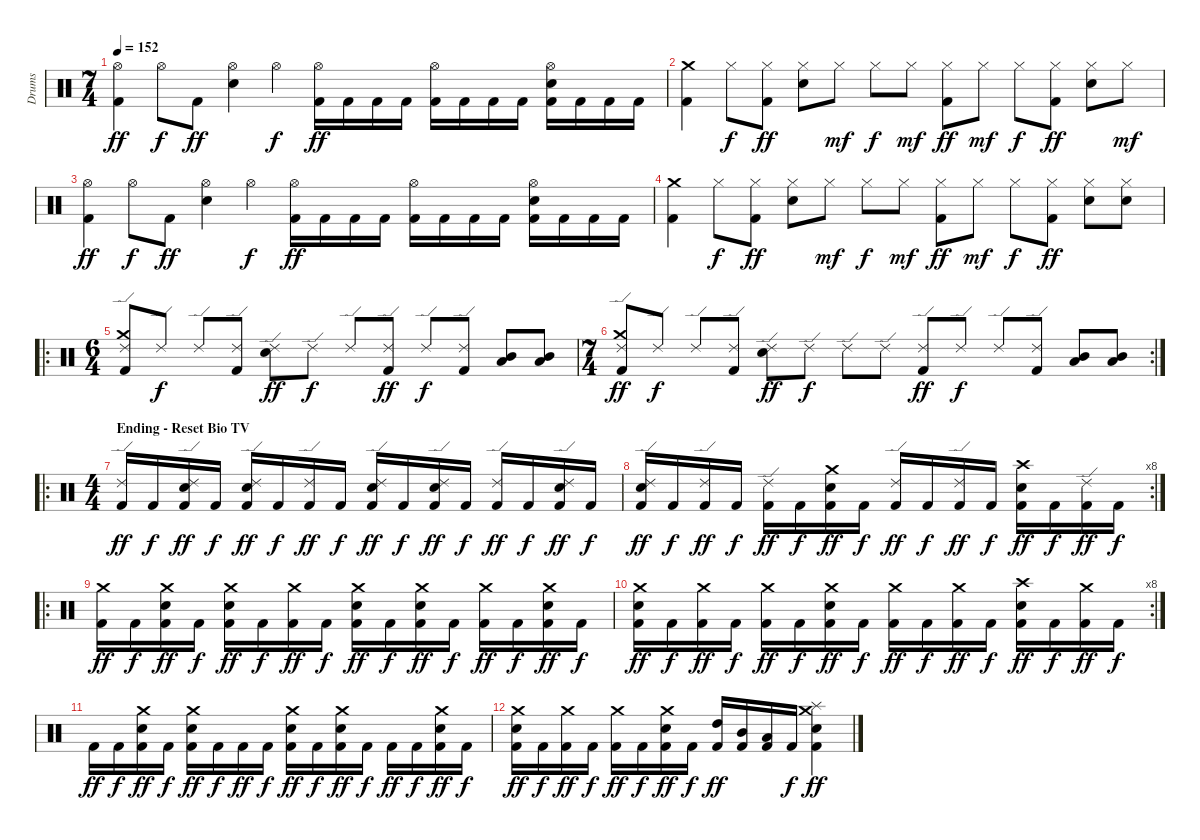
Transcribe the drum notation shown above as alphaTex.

\track ("Drums" "Drums") {instrument percussion}
\staff {score}
\articulation defaults
\ts (7 4)
\tempo 152
\clef neutral
\ks c
("Hi-Hat (open)" "Kick (hit) 2").4{dy ff} "Hi-Hat (open)".8{dy f} "Kick (hit) 2".8{dy ff} ("Hi-Hat (open)" "Electric Snare (hit)").4 "Hi-Hat (open)".4{dy f} ("Hi-Hat (open)" "Kick (hit) 2").16{dy ff} "Kick (hit) 2".16 "Kick (hit) 2".16 "Kick (hit) 2".16 ("Hi-Hat (open)" "Kick (hit) 2").16 "Kick (hit) 2".16 "Kick (hit) 2".16 "Kick (hit) 2".16 ("Hi-Hat (open)" "Electric Snare (hit)" "Kick (hit) 2").16 "Kick (hit) 2".16 "Kick (hit) 2".16 "Kick (hit) 2".16 |
("Crash medium (hit)" "Kick (hit) 2").4 "Hi-Hat (closed)".8{dy f} ("Hi-Hat (closed)" "Kick (hit) 2").8{dy ff} ("Hi-Hat (closed)" "Electric Snare (hit)").8 "Hi-Hat (closed)".8{dy mf} "Hi-Hat (closed)".8{dy f} "Hi-Hat (closed)".8{dy mf} ("Hi-Hat (closed)" "Kick (hit) 2").8{dy ff} "Hi-Hat (closed)".8{dy mf} "Hi-Hat (closed)".8{dy f} ("Hi-Hat (closed)" "Kick (hit) 2").8{dy ff} ("Hi-Hat (closed)" "Electric Snare (hit)").8 "Hi-Hat (closed)".8{dy mf} |
("Hi-Hat (open)" "Kick (hit) 2").4{dy ff} "Hi-Hat (open)".8{dy f} "Kick (hit) 2".8{dy ff} ("Hi-Hat (open)" "Electric Snare (hit)").4 "Hi-Hat (open)".4{dy f} ("Hi-Hat (open)" "Kick (hit) 2").16{dy ff} "Kick (hit) 2".16 "Kick (hit) 2".16 "Kick (hit) 2".16 ("Hi-Hat (open)" "Kick (hit) 2").16 "Kick (hit) 2".16 "Kick (hit) 2".16 "Kick (hit) 2".16 ("Hi-Hat (open)" "Electric Snare (hit)" "Kick (hit) 2").16 "Kick (hit) 2".16 "Kick (hit) 2".16 "Kick (hit) 2".16 |
("Crash medium (hit)" "Kick (hit) 2").4 "Hi-Hat (closed)".8{dy f} ("Hi-Hat (closed)" "Kick (hit) 2").8{dy ff} ("Hi-Hat (closed)" "Electric Snare (hit)").8 "Hi-Hat (closed)".8{dy mf} "Hi-Hat (closed)".8{dy f} "Hi-Hat (closed)".8{dy mf} ("Hi-Hat (closed)" "Kick (hit) 2").8{dy ff} "Hi-Hat (closed)".8{dy mf} "Hi-Hat (closed)".8{dy f} ("Hi-Hat (closed)" "Kick (hit) 2").8{dy ff} ("Hi-Hat (closed)" "Electric Snare (hit)").8 ("Hi-Hat (closed)" "Electric Snare (hit)").8 |
\ro
\ts (6 4)
("Ride (edge) 2" "Crash medium (hit)" "Kick (hit) 2").8 "Ride (edge) 2".8{dy f} "Ride (edge) 2".8 ("Ride (edge) 2" "Kick (hit) 2").8 ("Ride (edge) 2" "Electric Snare (hit)").8{dy ff} "Ride (edge) 2".8{dy f} "Ride (edge) 2".8 ("Ride (edge) 2" "Kick (hit) 2").8{dy ff} "Ride (edge) 2".8{dy f} ("Ride (edge) 2" "Kick (hit) 2").8 ("Mid Tom (hit)" "Low Tom (hit)").8 ("Mid Tom (hit)" "Low Tom (hit)").8 |
\rc 2
\ts (7 4)
("Ride (edge) 2" "Crash medium (hit)" "Kick (hit) 2").8{dy ff} "Ride (edge) 2".8{dy f} "Ride (edge) 2".8 ("Ride (edge) 2" "Kick (hit) 2").8 ("Ride (edge) 2" "Electric Snare (hit)").8{dy ff} "Ride (edge) 2".8{dy f} "Ride (edge) 2".8 "Ride (edge) 2".8 ("Ride (edge) 2" "Kick (hit) 2").8{dy ff} "Ride (edge) 2".8{dy f} "Ride (edge) 2".8 ("Ride (edge) 2" "Kick (hit) 2").8 ("Mid Tom (hit)" "Low Tom (hit)").8 ("Mid Tom (hit)" "Low Tom (hit)").8 |
\ro
\ts (4 4)
\section ("" "Ending - Reset Bio TV")
("Ride (edge) 2" "Kick (hit) 2").16{dy ff} "Kick (hit) 2".16{dy f} ("Ride (edge) 2" "Electric Snare (hit)" "Kick (hit) 2").16{dy ff} "Kick (hit) 2".16{dy f} ("Ride (edge) 2" "Electric Snare (hit)" "Kick (hit) 2").16{dy ff} "Kick (hit) 2".16{dy f} ("Ride (edge) 2" "Kick (hit) 2").16{dy ff} "Kick (hit) 2".16{dy f} ("Ride (edge) 2" "Electric Snare (hit)" "Kick (hit) 2").16{dy ff} "Kick (hit) 2".16{dy f} ("Ride (edge) 2" "Electric Snare (hit)" "Kick (hit) 2").16{dy ff} "Kick (hit) 2".16{dy f} ("Ride (edge) 2" "Kick (hit) 2").16{dy ff} "Kick (hit) 2".16{dy f} ("Ride (edge) 2" "Electric Snare (hit)" "Kick (hit) 2").16{dy ff} "Kick (hit) 2".16{dy f} |
\rc 8
("Ride (edge) 2" "Electric Snare (hit)" "Kick (hit) 2").16{dy ff} "Kick (hit) 2".16{dy f} ("Ride (edge) 2" "Kick (hit) 2").16{dy ff} "Kick (hit) 2".16{dy f} ("Ride (edge) 2" "Kick (hit) 2").16{dy ff} "Kick (hit) 2".16{dy f} ("Crash medium (hit)" "Electric Snare (hit)" "Kick (hit) 2").16{dy ff} "Kick (hit) 2".16{dy f} ("Ride (edge) 2" "Kick (hit) 2").16{dy ff} "Kick (hit) 2".16{dy f} ("Ride (edge) 2" "Kick (hit) 2").16{dy ff} "Kick (hit) 2".16{dy f} ("Crash high (hit)" "Electric Snare (hit)" "Kick (hit) 2").16{dy ff} "Kick (hit) 2".16{dy f} ("Ride (edge) 2" "Kick (hit) 2").16{dy ff} "Kick (hit) 2".16{dy f} |
\ro
("Crash medium (hit)" "Kick (hit) 2").16{dy ff} "Kick (hit) 2".16{dy f} ("Crash medium (hit)" "Electric Snare (hit)" "Kick (hit) 2").16{dy ff} "Kick (hit) 2".16{dy f} ("Crash medium (hit)" "Electric Snare (hit)" "Kick (hit) 2").16{dy ff} "Kick (hit) 2".16{dy f} ("Crash medium (hit)" "Kick (hit) 2").16{dy ff} "Kick (hit) 2".16{dy f} ("Crash medium (hit)" "Electric Snare (hit)" "Kick (hit) 2").16{dy ff} "Kick (hit) 2".16{dy f} ("Crash medium (hit)" "Electric Snare (hit)" "Kick (hit) 2").16{dy ff} "Kick (hit) 2".16{dy f} ("Crash medium (hit)" "Kick (hit) 2").16{dy ff} "Kick (hit) 2".16{dy f} ("Crash medium (hit)" "Electric Snare (hit)" "Kick (hit) 2").16{dy ff} "Kick (hit) 2".16{dy f} |
\rc 8
("Crash medium (hit)" "Electric Snare (hit)" "Kick (hit) 2").16{dy ff} "Kick (hit) 2".16{dy f} ("Crash medium (hit)" "Kick (hit) 2").16{dy ff} "Kick (hit) 2".16{dy f} ("Crash medium (hit)" "Kick (hit) 2").16{dy ff} "Kick (hit) 2".16{dy f} ("Crash medium (hit)" "Electric Snare (hit)" "Kick (hit) 2").16{dy ff} "Kick (hit) 2".16{dy f} ("Crash medium (hit)" "Kick (hit) 2").16{dy ff} "Kick (hit) 2".16{dy f} ("Crash medium (hit)" "Kick (hit) 2").16{dy ff} "Kick (hit) 2".16{dy f} ("Crash high (hit)" "Electric Snare (hit)" "Kick (hit) 2").16{dy ff} "Kick (hit) 2".16{dy f} ("Crash medium (hit)" "Kick (hit) 2").16{dy ff} "Kick (hit) 2".16{dy f} |
"Kick (hit) 2".16{dy ff} "Kick (hit) 2".16{dy f} ("Crash medium (hit)" "Electric Snare (hit)" "Kick (hit) 2").16{dy ff} "Kick (hit) 2".16{dy f} ("Crash medium (hit)" "Electric Snare (hit)" "Kick (hit) 2").16{dy ff} "Kick (hit) 2".16{dy f} "Kick (hit) 2".16{dy ff} "Kick (hit) 2".16{dy f} ("Crash medium (hit)" "Electric Snare (hit)" "Kick (hit) 2").16{dy ff} "Kick (hit) 2".16{dy f} ("Crash medium (hit)" "Electric Snare (hit)" "Kick (hit) 2").16{dy ff} "Kick (hit) 2".16{dy f} "Kick (hit) 2".16{dy ff} "Kick (hit) 2".16{dy f} ("Crash medium (hit)" "Electric Snare (hit)" "Kick (hit) 2").16{dy ff} "Kick (hit) 2".16{dy f} |
("Crash medium (hit)" "Electric Snare (hit)" "Kick (hit) 2").16{dy ff} "Kick (hit) 2".16{dy f} ("Crash medium (hit)" "Kick (hit) 2").16{dy ff} "Kick (hit) 2".16{dy f} ("Crash medium (hit)" "Kick (hit) 2").16{dy ff} "Kick (hit) 2".16{dy f} ("Crash medium (hit)" "Electric Snare (hit)" "Kick (hit) 2").16{dy ff} "Kick (hit) 2".16{dy f} ("High Tom (hit)" "Kick (hit) 2").16{dy ff} ("Mid Tom (hit)" "Kick (hit) 2").16 ("Low Tom (hit)" "Kick (hit) 2").16 "Kick (hit) 2".16{dy f} ("Splash (hit)" "Crash medium (hit)" "Electric Snare (hit)" "Kick (hit) 2").4{dy ff}
